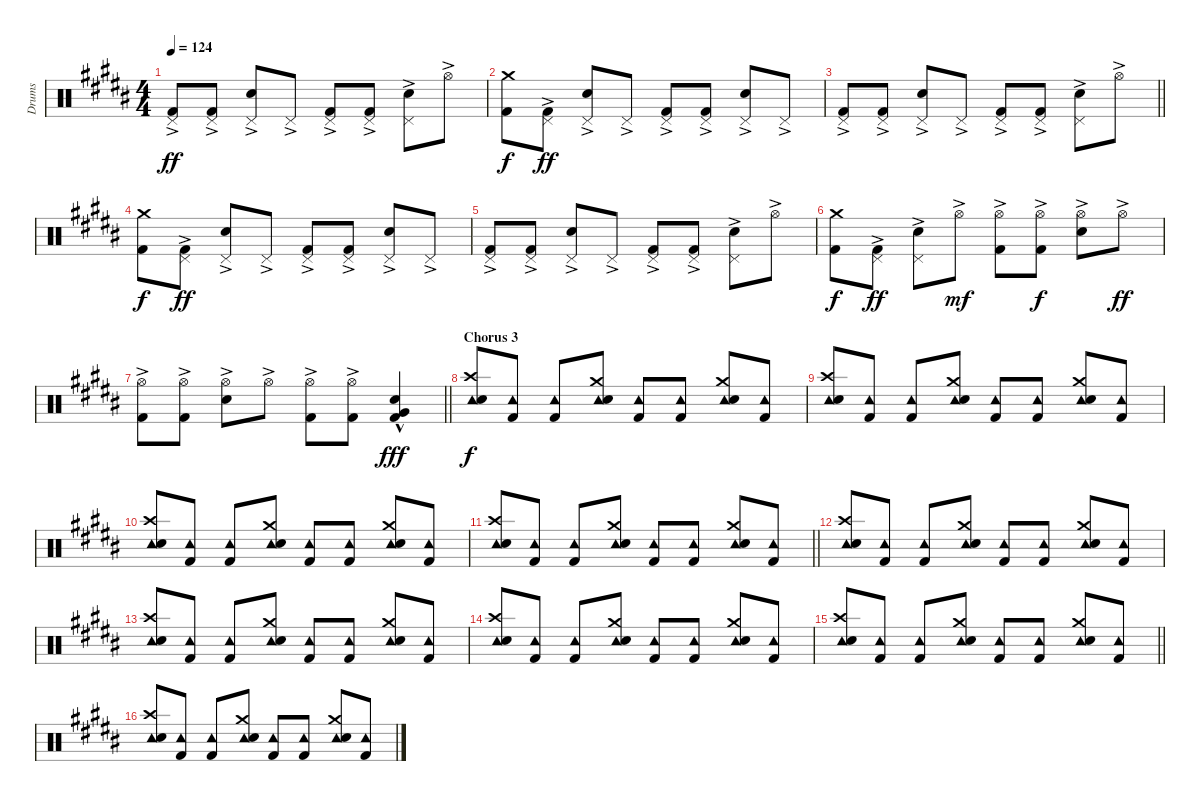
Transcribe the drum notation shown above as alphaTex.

\track ("Drums" "Drums") {instrument percussion}
\staff {score}
\articulation defaults
\ts (4 4)
\tempo 124
\clef neutral
\ks b
("Pedal Hi-Hat (hit)"{ac} "Kick (hit) 2").8{dy ff} ("Pedal Hi-Hat (hit)"{ac} "Kick (hit) 2").8 ("Pedal Hi-Hat (hit)"{ac} "Snare (hit) 2").8 "Pedal Hi-Hat (hit)"{ac}.8 ("Pedal Hi-Hat (hit)"{ac} "Kick (hit) 2").8 ("Pedal Hi-Hat (hit)"{ac} "Kick (hit) 2").8 ("Pedal Hi-Hat (hit)"{ac} "Snare (hit) 2").8 "Hi-Hat (open)"{ac}.8 |
("Crash medium (hit)" "Kick (hit) 2").8{dy f} ("Pedal Hi-Hat (hit)"{ac} "Kick (hit) 2").8{dy ff} ("Pedal Hi-Hat (hit)"{ac} "Snare (hit) 2").8 "Pedal Hi-Hat (hit)"{ac}.8 ("Pedal Hi-Hat (hit)"{ac} "Kick (hit) 2").8 ("Pedal Hi-Hat (hit)"{ac} "Kick (hit) 2").8 ("Pedal Hi-Hat (hit)"{ac} "Snare (hit) 2").8 "Pedal Hi-Hat (hit)"{ac}.8 |
\barLineRight lightlight
("Pedal Hi-Hat (hit)"{ac} "Kick (hit) 2").8 ("Pedal Hi-Hat (hit)"{ac} "Kick (hit) 2").8 ("Pedal Hi-Hat (hit)"{ac} "Snare (hit) 2").8 "Pedal Hi-Hat (hit)"{ac}.8 ("Pedal Hi-Hat (hit)"{ac} "Kick (hit) 2").8 ("Pedal Hi-Hat (hit)"{ac} "Kick (hit) 2").8 ("Pedal Hi-Hat (hit)"{ac} "Snare (hit) 2").8 "Hi-Hat (open)"{ac}.8 |
("Crash medium (hit)" "Kick (hit) 2").8{dy f} ("Pedal Hi-Hat (hit)"{ac} "Kick (hit) 2").8{dy ff} ("Pedal Hi-Hat (hit)"{ac} "Snare (hit) 2").8 "Pedal Hi-Hat (hit)"{ac}.8 ("Pedal Hi-Hat (hit)"{ac} "Kick (hit) 2").8 ("Pedal Hi-Hat (hit)"{ac} "Kick (hit) 2").8 ("Pedal Hi-Hat (hit)"{ac} "Snare (hit) 2").8 "Pedal Hi-Hat (hit)"{ac}.8 |
("Pedal Hi-Hat (hit)"{ac} "Kick (hit) 2").8 ("Pedal Hi-Hat (hit)"{ac} "Kick (hit) 2").8 ("Pedal Hi-Hat (hit)"{ac} "Snare (hit) 2").8 "Pedal Hi-Hat (hit)"{ac}.8 ("Pedal Hi-Hat (hit)"{ac} "Kick (hit) 2").8 ("Pedal Hi-Hat (hit)"{ac} "Kick (hit) 2").8 ("Pedal Hi-Hat (hit)"{ac} "Snare (hit) 2").8 "Hi-Hat (open)"{ac}.8 |
("Crash medium (hit)" "Kick (hit) 2").8{dy f} ("Pedal Hi-Hat (hit)"{ac} "Kick (hit) 2").8{dy ff} ("Pedal Hi-Hat (hit)"{ac} "Snare (hit) 2").8 "Hi-Hat (open)"{ac}.8{dy mf} ("Hi-Hat (open)"{ac} "Kick (hit) 2").8 ("Hi-Hat (open)"{ac} "Kick (hit) 2").8{dy f} ("Hi-Hat (open)"{ac} "Snare (hit) 2").8 "Hi-Hat (open)"{ac}.8{dy ff} |
\barLineRight lightlight
("Hi-Hat (open)"{ac} "Kick (hit) 2").8 ("Hi-Hat (open)"{ac} "Kick (hit) 2").8 ("Hi-Hat (open)"{ac} "Snare (hit) 2").8 "Hi-Hat (open)"{ac}.8 ("Hi-Hat (open)"{ac} "Kick (hit) 2").8 ("Hi-Hat (open)"{ac} "Kick (hit) 2").8 ("Very Low Tom (hit)"{hac} "Snare (hit) 2"{hac} "Kick (hit) 2"{hac}).4{dy fff} |
\section ("" "Chorus 3")
("Crash high (hit)" "Tambourine (hit)" "Snare (hit) 2").8{dy f} ("Tambourine (hit)" "Kick (hit) 2").8 ("Tambourine (hit)" "Kick (hit) 2").8 ("Crash medium (hit)" "Tambourine (hit)" "Snare (hit) 2").8 ("Tambourine (hit)" "Kick (hit) 2").8 ("Tambourine (hit)" "Kick (hit) 2").8 ("Crash medium (hit)" "Tambourine (hit)" "Snare (hit) 2").8 ("Tambourine (hit)" "Kick (hit) 2").8 |
("Crash high (hit)" "Tambourine (hit)" "Snare (hit) 2").8 ("Tambourine (hit)" "Kick (hit) 2").8 ("Tambourine (hit)" "Kick (hit) 2").8 ("Crash medium (hit)" "Tambourine (hit)" "Snare (hit) 2").8 ("Tambourine (hit)" "Kick (hit) 2").8 ("Tambourine (hit)" "Kick (hit) 2").8 ("Crash medium (hit)" "Tambourine (hit)" "Snare (hit) 2").8 ("Tambourine (hit)" "Kick (hit) 2").8 |
("Crash high (hit)" "Tambourine (hit)" "Snare (hit) 2").8 ("Tambourine (hit)" "Kick (hit) 2").8 ("Tambourine (hit)" "Kick (hit) 2").8 ("Crash medium (hit)" "Tambourine (hit)" "Snare (hit) 2").8 ("Tambourine (hit)" "Kick (hit) 2").8 ("Tambourine (hit)" "Kick (hit) 2").8 ("Crash medium (hit)" "Tambourine (hit)" "Snare (hit) 2").8 ("Tambourine (hit)" "Kick (hit) 2").8 |
\barLineRight lightlight
("Crash high (hit)" "Tambourine (hit)" "Snare (hit) 2").8 ("Tambourine (hit)" "Kick (hit) 2").8 ("Tambourine (hit)" "Kick (hit) 2").8 ("Crash medium (hit)" "Tambourine (hit)" "Snare (hit) 2").8 ("Tambourine (hit)" "Kick (hit) 2").8 ("Tambourine (hit)" "Kick (hit) 2").8 ("Crash medium (hit)" "Tambourine (hit)" "Snare (hit) 2").8 ("Tambourine (hit)" "Kick (hit) 2").8 |
("Crash high (hit)" "Tambourine (hit)" "Snare (hit) 2").8 ("Tambourine (hit)" "Kick (hit) 2").8 ("Tambourine (hit)" "Kick (hit) 2").8 ("Crash medium (hit)" "Tambourine (hit)" "Snare (hit) 2").8 ("Tambourine (hit)" "Kick (hit) 2").8 ("Tambourine (hit)" "Kick (hit) 2").8 ("Crash medium (hit)" "Tambourine (hit)" "Snare (hit) 2").8 ("Tambourine (hit)" "Kick (hit) 2").8 |
("Crash high (hit)" "Tambourine (hit)" "Snare (hit) 2").8 ("Tambourine (hit)" "Kick (hit) 2").8 ("Tambourine (hit)" "Kick (hit) 2").8 ("Crash medium (hit)" "Tambourine (hit)" "Snare (hit) 2").8 ("Tambourine (hit)" "Kick (hit) 2").8 ("Tambourine (hit)" "Kick (hit) 2").8 ("Crash medium (hit)" "Tambourine (hit)" "Snare (hit) 2").8 ("Tambourine (hit)" "Kick (hit) 2").8 |
("Crash high (hit)" "Tambourine (hit)" "Snare (hit) 2").8 ("Tambourine (hit)" "Kick (hit) 2").8 ("Tambourine (hit)" "Kick (hit) 2").8 ("Crash medium (hit)" "Tambourine (hit)" "Snare (hit) 2").8 ("Tambourine (hit)" "Kick (hit) 2").8 ("Tambourine (hit)" "Kick (hit) 2").8 ("Crash medium (hit)" "Tambourine (hit)" "Snare (hit) 2").8 ("Tambourine (hit)" "Kick (hit) 2").8 |
\barLineRight lightlight
("Crash high (hit)" "Tambourine (hit)" "Snare (hit) 2").8 ("Tambourine (hit)" "Kick (hit) 2").8 ("Tambourine (hit)" "Kick (hit) 2").8 ("Crash medium (hit)" "Tambourine (hit)" "Snare (hit) 2").8 ("Tambourine (hit)" "Kick (hit) 2").8 ("Tambourine (hit)" "Kick (hit) 2").8 ("Crash medium (hit)" "Tambourine (hit)" "Snare (hit) 2").8 ("Tambourine (hit)" "Kick (hit) 2").8 |
("Crash high (hit)" "Tambourine (hit)" "Snare (hit) 2").8 ("Tambourine (hit)" "Kick (hit) 2").8 ("Tambourine (hit)" "Kick (hit) 2").8 ("Crash medium (hit)" "Tambourine (hit)" "Snare (hit) 2").8 ("Tambourine (hit)" "Kick (hit) 2").8 ("Tambourine (hit)" "Kick (hit) 2").8 ("Crash medium (hit)" "Tambourine (hit)" "Snare (hit) 2").8 ("Tambourine (hit)" "Kick (hit) 2").8
